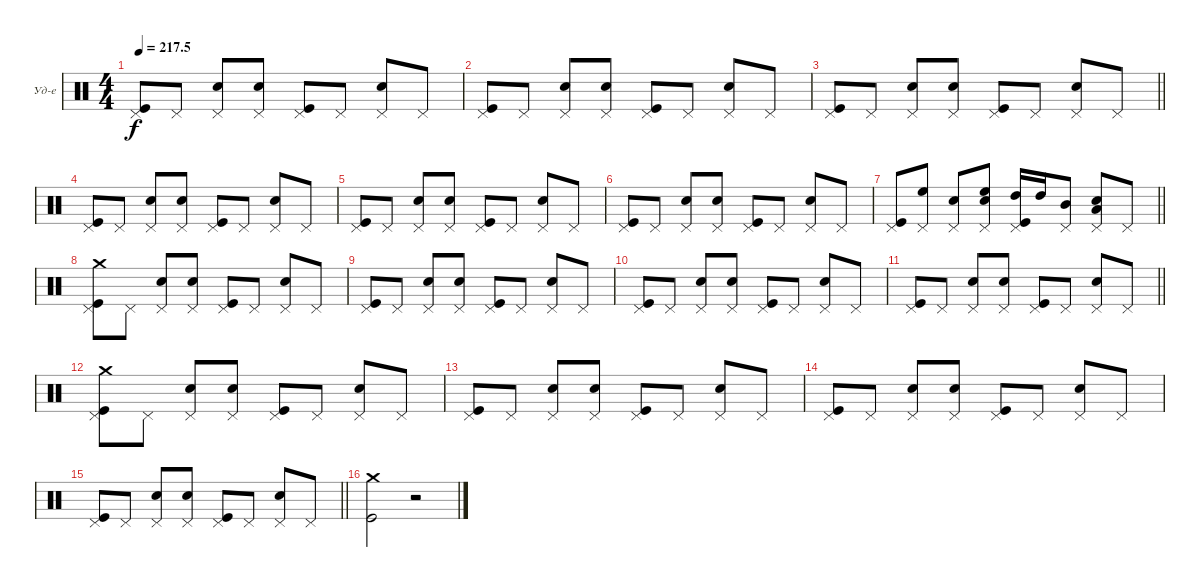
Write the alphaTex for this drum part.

\bracketExtendMode groupsimilarinstruments
\firstSystemTrackNameOrientation horizontal
\otherSystemsTrackNameOrientation horizontal
\track ("Ударные" "Уд-е") {instrument percussion}
\staff {score}
\articulation defaults
\ts (4 4)
\tempo
217.5
\accidentals auto
\clef neutral
\ottava regular
\simile none
\ks c
("Pedal Hi-Hat (hit)" "Kick (hit)").8{dy f} "Pedal Hi-Hat (hit)".8 ("Pedal Hi-Hat (hit)" "Snare (hit) 2").8 ("Pedal Hi-Hat (hit)" "Snare (hit) 2").8 ("Pedal Hi-Hat (hit)" "Kick (hit)").8 "Pedal Hi-Hat (hit)".8 ("Pedal Hi-Hat (hit)" "Snare (hit) 2").8 "Pedal Hi-Hat (hit)".8 |
("Pedal Hi-Hat (hit)" "Kick (hit)").8 "Pedal Hi-Hat (hit)".8 ("Pedal Hi-Hat (hit)" "Snare (hit) 2").8 ("Pedal Hi-Hat (hit)" "Snare (hit) 2").8 ("Pedal Hi-Hat (hit)" "Kick (hit)").8 "Pedal Hi-Hat (hit)".8 ("Pedal Hi-Hat (hit)" "Snare (hit) 2").8 "Pedal Hi-Hat (hit)".8 |
\barLineRight lightlight
("Pedal Hi-Hat (hit)" "Kick (hit)").8 "Pedal Hi-Hat (hit)".8 ("Pedal Hi-Hat (hit)" "Snare (hit) 2").8 ("Pedal Hi-Hat (hit)" "Snare (hit) 2").8 ("Pedal Hi-Hat (hit)" "Kick (hit)").8 "Pedal Hi-Hat (hit)".8 ("Pedal Hi-Hat (hit)" "Snare (hit) 2").8 "Pedal Hi-Hat (hit)".8 |
("Pedal Hi-Hat (hit)" "Kick (hit)").8 "Pedal Hi-Hat (hit)".8 ("Pedal Hi-Hat (hit)" "Snare (hit) 2").8 ("Pedal Hi-Hat (hit)" "Snare (hit) 2").8 ("Pedal Hi-Hat (hit)" "Kick (hit)").8 "Pedal Hi-Hat (hit)".8 ("Pedal Hi-Hat (hit)" "Snare (hit) 2").8 "Pedal Hi-Hat (hit)".8 |
("Pedal Hi-Hat (hit)" "Kick (hit)").8 "Pedal Hi-Hat (hit)".8 ("Pedal Hi-Hat (hit)" "Snare (hit) 2").8 ("Pedal Hi-Hat (hit)" "Snare (hit) 2").8 ("Pedal Hi-Hat (hit)" "Kick (hit)").8 "Pedal Hi-Hat (hit)".8 ("Pedal Hi-Hat (hit)" "Snare (hit) 2").8 "Pedal Hi-Hat (hit)".8 |
("Pedal Hi-Hat (hit)" "Kick (hit)").8 "Pedal Hi-Hat (hit)".8 ("Pedal Hi-Hat (hit)" "Snare (hit) 2").8 ("Pedal Hi-Hat (hit)" "Snare (hit) 2").8 ("Pedal Hi-Hat (hit)" "Kick (hit)").8 "Pedal Hi-Hat (hit)".8 ("Pedal Hi-Hat (hit)" "Snare (hit) 2").8 "Pedal Hi-Hat (hit)".8 |
\barLineRight lightlight
("Pedal Hi-Hat (hit)" "Kick (hit)").8 ("Pedal Hi-Hat (hit)" "High Floor Tom (hit)").8 ("Pedal Hi-Hat (hit)" "Snare (hit) 2").8 ("Pedal Hi-Hat (hit)" "Snare (hit) 2" "High Floor Tom (hit)").8 ("Pedal Hi-Hat (hit)" "Kick (hit)" "High Tom (hit)").16 "High Tom (hit)".16 ("Pedal Hi-Hat (hit)" "Mid Tom (hit)").8 ("Pedal Hi-Hat (hit)" "Snare (hit) 2" "Low Tom (hit)").8 "Pedal Hi-Hat (hit)".8 |
("Pedal Hi-Hat (hit)" "Kick (hit)" "Crash medium (hit)").8 "Pedal Hi-Hat (hit)".8 ("Pedal Hi-Hat (hit)" "Snare (hit) 2").8 ("Pedal Hi-Hat (hit)" "Snare (hit) 2").8 ("Pedal Hi-Hat (hit)" "Kick (hit)").8 "Pedal Hi-Hat (hit)".8 ("Pedal Hi-Hat (hit)" "Snare (hit) 2").8 "Pedal Hi-Hat (hit)".8 |
("Pedal Hi-Hat (hit)" "Kick (hit)").8 "Pedal Hi-Hat (hit)".8 ("Pedal Hi-Hat (hit)" "Snare (hit) 2").8 ("Pedal Hi-Hat (hit)" "Snare (hit) 2").8 ("Pedal Hi-Hat (hit)" "Kick (hit)").8 "Pedal Hi-Hat (hit)".8 ("Pedal Hi-Hat (hit)" "Snare (hit) 2").8 "Pedal Hi-Hat (hit)".8 |
("Pedal Hi-Hat (hit)" "Kick (hit)").8 "Pedal Hi-Hat (hit)".8 ("Pedal Hi-Hat (hit)" "Snare (hit) 2").8 ("Pedal Hi-Hat (hit)" "Snare (hit) 2").8 ("Pedal Hi-Hat (hit)" "Kick (hit)").8 "Pedal Hi-Hat (hit)".8 ("Pedal Hi-Hat (hit)" "Snare (hit) 2").8 "Pedal Hi-Hat (hit)".8 |
\barLineRight lightlight
("Pedal Hi-Hat (hit)" "Kick (hit)").8 "Pedal Hi-Hat (hit)".8 ("Pedal Hi-Hat (hit)" "Snare (hit) 2").8 ("Pedal Hi-Hat (hit)" "Snare (hit) 2").8 ("Pedal Hi-Hat (hit)" "Kick (hit)").8 "Pedal Hi-Hat (hit)".8 ("Pedal Hi-Hat (hit)" "Snare (hit) 2").8 "Pedal Hi-Hat (hit)".8 |
("Pedal Hi-Hat (hit)" "Kick (hit)" "Crash medium (hit)").8 "Pedal Hi-Hat (hit)".8 ("Pedal Hi-Hat (hit)" "Snare (hit) 2").8 ("Pedal Hi-Hat (hit)" "Snare (hit) 2").8 ("Pedal Hi-Hat (hit)" "Kick (hit)").8 "Pedal Hi-Hat (hit)".8 ("Pedal Hi-Hat (hit)" "Snare (hit) 2").8 "Pedal Hi-Hat (hit)".8 |
("Pedal Hi-Hat (hit)" "Kick (hit)").8 "Pedal Hi-Hat (hit)".8 ("Pedal Hi-Hat (hit)" "Snare (hit) 2").8 ("Pedal Hi-Hat (hit)" "Snare (hit) 2").8 ("Pedal Hi-Hat (hit)" "Kick (hit)").8 "Pedal Hi-Hat (hit)".8 ("Pedal Hi-Hat (hit)" "Snare (hit) 2").8 "Pedal Hi-Hat (hit)".8 |
("Pedal Hi-Hat (hit)" "Kick (hit)").8 "Pedal Hi-Hat (hit)".8 ("Pedal Hi-Hat (hit)" "Snare (hit) 2").8 ("Pedal Hi-Hat (hit)" "Snare (hit) 2").8 ("Pedal Hi-Hat (hit)" "Kick (hit)").8 "Pedal Hi-Hat (hit)".8 ("Pedal Hi-Hat (hit)" "Snare (hit) 2").8 "Pedal Hi-Hat (hit)".8 |
\barLineRight lightlight
("Pedal Hi-Hat (hit)" "Kick (hit)").8 "Pedal Hi-Hat (hit)".8 ("Pedal Hi-Hat (hit)" "Snare (hit) 2").8 ("Pedal Hi-Hat (hit)" "Snare (hit) 2").8 ("Pedal Hi-Hat (hit)" "Kick (hit)").8 "Pedal Hi-Hat (hit)".8 ("Pedal Hi-Hat (hit)" "Snare (hit) 2").8 "Pedal Hi-Hat (hit)".8 |
("Kick (hit)" "Crash medium (hit)").2 r.2
